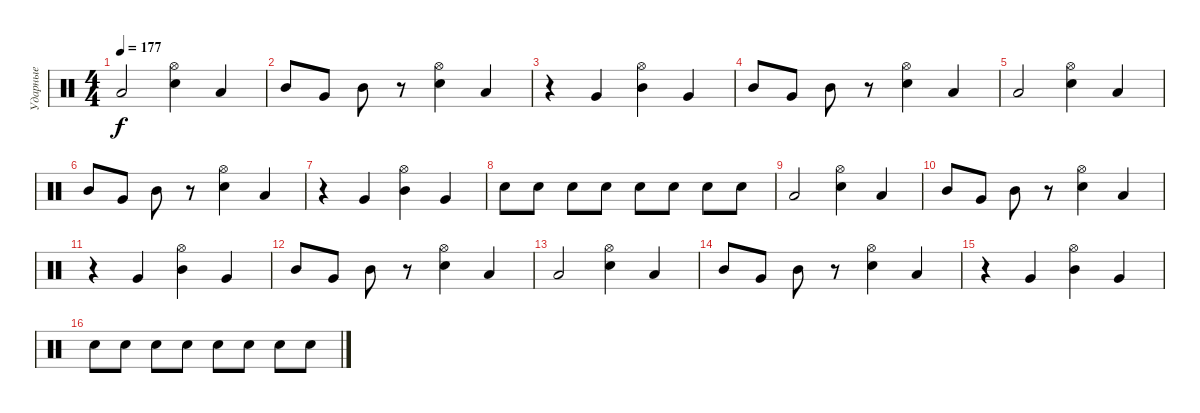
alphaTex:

\track ("Ударные" "Ударные") {instrument percussion}
\staff {score}
\articulation defaults
\ts (4 4)
\tempo 177
\clef neutral
\ks c "Low Tom (hit)".2{dy f}
("Hi-Hat (open)" "Electric Snare (hit)").4 "Low Tom (hit)".4 |
"Mid Tom (hit)".8 "Very Low Tom (hit)".8 "Mid Tom (hit)".8 r.8 ("Hi-Hat (open)" "Electric Snare (hit)").4 "Low Tom (hit)".4 |
r.4 "Very Low Tom (hit)".4 ("Hi-Hat (open)" "Mid Tom (hit)").4 "Very Low Tom (hit)".4 |
"Mid Tom (hit)".8 "Very Low Tom (hit)".8 "Mid Tom (hit)".8 r.8 ("Hi-Hat (open)" "Electric Snare (hit)").4 "Low Tom (hit)".4 |
"Low Tom (hit)".2 ("Hi-Hat (open)" "Electric Snare (hit)").4 "Low Tom (hit)".4 |
"Mid Tom (hit)".8 "Very Low Tom (hit)".8 "Mid Tom (hit)".8 r.8 ("Hi-Hat (open)" "Electric Snare (hit)").4 "Low Tom (hit)".4 |
r.4 "Very Low Tom (hit)".4 ("Hi-Hat (open)" "Mid Tom (hit)").4 "Very Low Tom (hit)".4 |
"Electric Snare (hit)".8 "Electric Snare (hit)".8 "Electric Snare (hit)".8 "Electric Snare (hit)".8 "Electric Snare (hit)".8 "Electric Snare (hit)".8 "Electric Snare (hit)".8 "Electric Snare (hit)".8 |
"Low Tom (hit)".2 ("Hi-Hat (open)" "Electric Snare (hit)").4 "Low Tom (hit)".4 |
"Mid Tom (hit)".8 "Very Low Tom (hit)".8 "Mid Tom (hit)".8 r.8 ("Hi-Hat (open)" "Electric Snare (hit)").4 "Low Tom (hit)".4 |
r.4 "Very Low Tom (hit)".4 ("Hi-Hat (open)" "Mid Tom (hit)").4 "Very Low Tom (hit)".4 |
"Mid Tom (hit)".8 "Very Low Tom (hit)".8 "Mid Tom (hit)".8 r.8 ("Hi-Hat (open)" "Electric Snare (hit)").4 "Low Tom (hit)".4 |
"Low Tom (hit)".2 ("Hi-Hat (open)" "Electric Snare (hit)").4 "Low Tom (hit)".4 |
"Mid Tom (hit)".8 "Very Low Tom (hit)".8 "Mid Tom (hit)".8 r.8 ("Hi-Hat (open)" "Electric Snare (hit)").4 "Low Tom (hit)".4 |
r.4 "Very Low Tom (hit)".4 ("Hi-Hat (open)" "Mid Tom (hit)").4 "Very Low Tom (hit)".4 |
"Electric Snare (hit)".8 "Electric Snare (hit)".8 "Electric Snare (hit)".8 "Electric Snare (hit)".8 "Electric Snare (hit)".8 "Electric Snare (hit)".8 "Electric Snare (hit)".8 "Electric Snare (hit)".8
